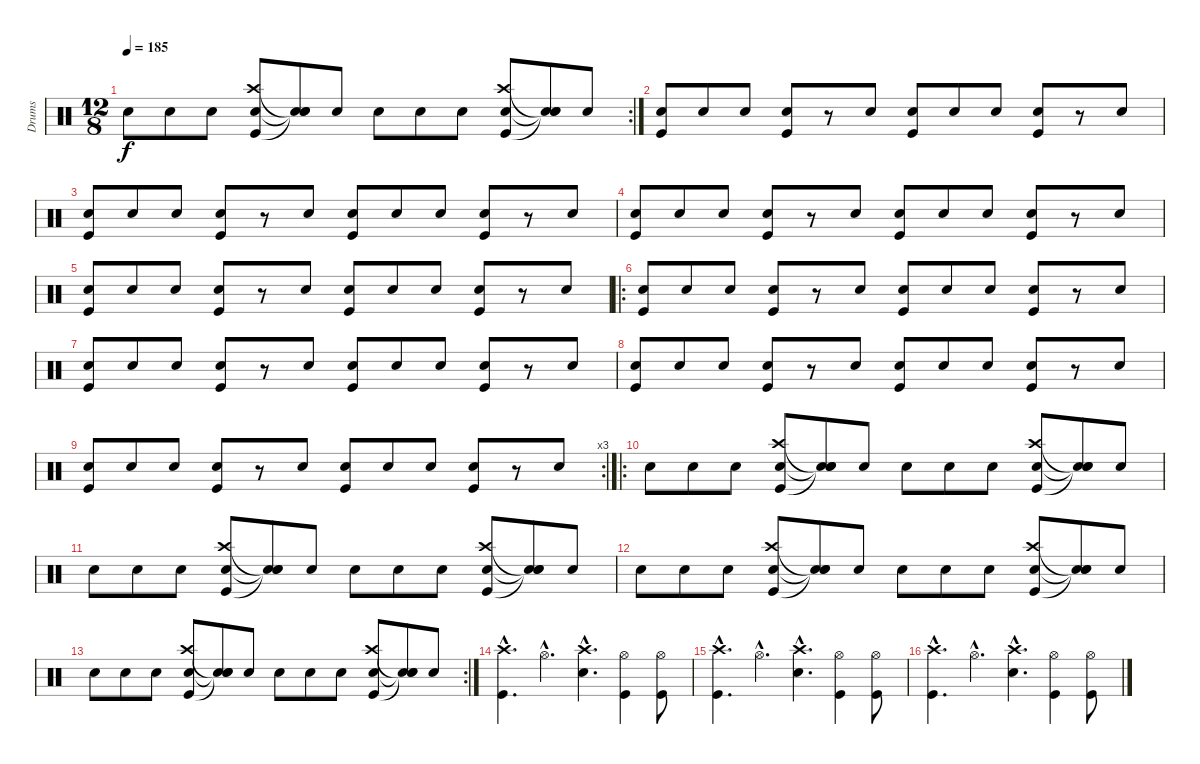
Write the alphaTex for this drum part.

\track ("Drums" "Drums") {instrument percussion}
\staff {score}
\articulation defaults
\rc 2
\ts (12 8)
\tempo 185
\clef neutral
\ks c "Snare (hit) 2".8{dy f} "Snare (hit) 2".8 "Snare (hit) 2".8
("Electric Snare (hit)" "Crash high (hit)" "Kick (hit)").8 ("Snare (hit)"{t} "Snare (hit)"{t} "Snare (hit)"{t}).8 "Snare (hit) 2".8 "Snare (hit) 2".8 "Snare (hit) 2".8 "Snare (hit) 2".8 ("Electric Snare (hit)" "Crash high (hit)" "Kick (hit)").8 ("Snare (hit)"{t} "Snare (hit)"{t} "Snare (hit)"{t}).8 "Snare (hit) 2".8 |
("Snare (hit) 2" "Kick (hit)").8 "Snare (hit) 2".8 "Snare (hit) 2".8 ("Snare (hit) 2" "Kick (hit)").8 r.8 "Snare (hit) 2".8 ("Snare (hit) 2" "Kick (hit)").8 "Snare (hit) 2".8 "Snare (hit) 2".8 ("Snare (hit) 2" "Kick (hit)").8 r.8 "Snare (hit) 2".8 |
("Snare (hit) 2" "Kick (hit)").8 "Snare (hit) 2".8 "Snare (hit) 2".8 ("Snare (hit) 2" "Kick (hit)").8 r.8 "Snare (hit) 2".8 ("Snare (hit) 2" "Kick (hit)").8 "Snare (hit) 2".8 "Snare (hit) 2".8 ("Snare (hit) 2" "Kick (hit)").8 r.8 "Snare (hit) 2".8 |
("Snare (hit) 2" "Kick (hit)").8 "Snare (hit) 2".8 "Snare (hit) 2".8 ("Snare (hit) 2" "Kick (hit)").8 r.8 "Snare (hit) 2".8 ("Snare (hit) 2" "Kick (hit)").8 "Snare (hit) 2".8 "Snare (hit) 2".8 ("Snare (hit) 2" "Kick (hit)").8 r.8 "Snare (hit) 2".8 |
("Snare (hit) 2" "Kick (hit)").8 "Snare (hit) 2".8 "Snare (hit) 2".8 ("Snare (hit) 2" "Kick (hit)").8 r.8 "Snare (hit) 2".8 ("Snare (hit) 2" "Kick (hit)").8 "Snare (hit) 2".8 "Snare (hit) 2".8 ("Snare (hit) 2" "Kick (hit)").8 r.8 "Snare (hit) 2".8 |
\ro
("Snare (hit) 2" "Kick (hit)").8 "Snare (hit) 2".8 "Snare (hit) 2".8 ("Snare (hit) 2" "Kick (hit)").8 r.8 "Snare (hit) 2".8 ("Snare (hit) 2" "Kick (hit)").8 "Snare (hit) 2".8 "Snare (hit) 2".8 ("Snare (hit) 2" "Kick (hit)").8 r.8 "Snare (hit) 2".8 |
("Snare (hit) 2" "Kick (hit)").8 "Snare (hit) 2".8 "Snare (hit) 2".8 ("Snare (hit) 2" "Kick (hit)").8 r.8 "Snare (hit) 2".8 ("Snare (hit) 2" "Kick (hit)").8 "Snare (hit) 2".8 "Snare (hit) 2".8 ("Snare (hit) 2" "Kick (hit)").8 r.8 "Snare (hit) 2".8 |
("Snare (hit) 2" "Kick (hit)").8 "Snare (hit) 2".8 "Snare (hit) 2".8 ("Snare (hit) 2" "Kick (hit)").8 r.8 "Snare (hit) 2".8 ("Snare (hit) 2" "Kick (hit)").8 "Snare (hit) 2".8 "Snare (hit) 2".8 ("Snare (hit) 2" "Kick (hit)").8 r.8 "Snare (hit) 2".8 |
\rc 3
("Snare (hit) 2" "Kick (hit)").8 "Snare (hit) 2".8 "Snare (hit) 2".8 ("Snare (hit) 2" "Kick (hit)").8 r.8 "Snare (hit) 2".8 ("Snare (hit) 2" "Kick (hit)").8 "Snare (hit) 2".8 "Snare (hit) 2".8 ("Snare (hit) 2" "Kick (hit)").8 r.8 "Snare (hit) 2".8 |
\ro "Snare (hit) 2".8 "Snare (hit) 2".8 "Snare (hit) 2".8
("Electric Snare (hit)" "Crash high (hit)" "Kick (hit)").8 ("Snare (hit)"{t} "Snare (hit)"{t} "Snare (hit)"{t}).8 "Snare (hit) 2".8 "Snare (hit) 2".8 "Snare (hit) 2".8 "Snare (hit) 2".8 ("Electric Snare (hit)" "Crash high (hit)" "Kick (hit)").8 ("Snare (hit)"{t} "Snare (hit)"{t} "Snare (hit)"{t}).8 "Snare (hit) 2".8 |
"Snare (hit) 2".8 "Snare (hit) 2".8 "Snare (hit) 2".8 ("Electric Snare (hit)" "Crash high (hit)" "Kick (hit)").8 ("Snare (hit)"{t} "Snare (hit)"{t} "Snare (hit)"{t}).8 "Snare (hit) 2".8 "Snare (hit) 2".8 "Snare (hit) 2".8 "Snare (hit) 2".8 ("Electric Snare (hit)" "Crash high (hit)" "Kick (hit)").8 ("Snare (hit)"{t} "Snare (hit)"{t} "Snare (hit)"{t}).8 "Snare (hit) 2".8 |
"Snare (hit) 2".8 "Snare (hit) 2".8 "Snare (hit) 2".8 ("Electric Snare (hit)" "Crash high (hit)" "Kick (hit)").8 ("Snare (hit)"{t} "Snare (hit)"{t} "Snare (hit)"{t}).8 "Snare (hit) 2".8 "Snare (hit) 2".8 "Snare (hit) 2".8 "Snare (hit) 2".8 ("Electric Snare (hit)" "Crash high (hit)" "Kick (hit)").8 ("Snare (hit)"{t} "Snare (hit)"{t} "Snare (hit)"{t}).8 "Snare (hit) 2".8 |
\rc 2 "Snare (hit) 2".8 "Snare (hit) 2".8 "Snare (hit) 2".8
("Electric Snare (hit)" "Crash high (hit)" "Kick (hit)").8 ("Snare (hit)"{t} "Snare (hit)"{t} "Snare (hit)"{t}).8 "Snare (hit) 2".8 "Snare (hit) 2".8 "Snare (hit) 2".8 "Snare (hit) 2".8 ("Electric Snare (hit)" "Crash high (hit)" "Kick (hit)").8 ("Snare (hit)"{t} "Snare (hit)"{t} "Snare (hit)"{t}).8 "Snare (hit) 2".8 |
("Crash high (hit)"{hac} "Kick (hit)"{hac}).4{d} "Hi-Hat (open)"{hac}.4{d} ("Crash high (hit)"{hac} "Snare (hit) 2"{hac}).4{d} ("Hi-Hat (open)" "Kick (hit)").4 ("Hi-Hat (open)" "Kick (hit)").8 |
("Crash high (hit)"{hac} "Kick (hit)"{hac}).4{d} "Hi-Hat (open)"{hac}.4{d} ("Crash high (hit)"{hac} "Snare (hit) 2"{hac}).4{d} ("Hi-Hat (open)" "Kick (hit)").4 ("Hi-Hat (open)" "Kick (hit)").8 |
("Crash high (hit)"{hac} "Kick (hit)"{hac}).4{d} "Hi-Hat (open)"{hac}.4{d} ("Crash high (hit)"{hac} "Snare (hit) 2"{hac}).4{d} ("Hi-Hat (open)" "Kick (hit)").4 ("Hi-Hat (open)" "Kick (hit)").8
